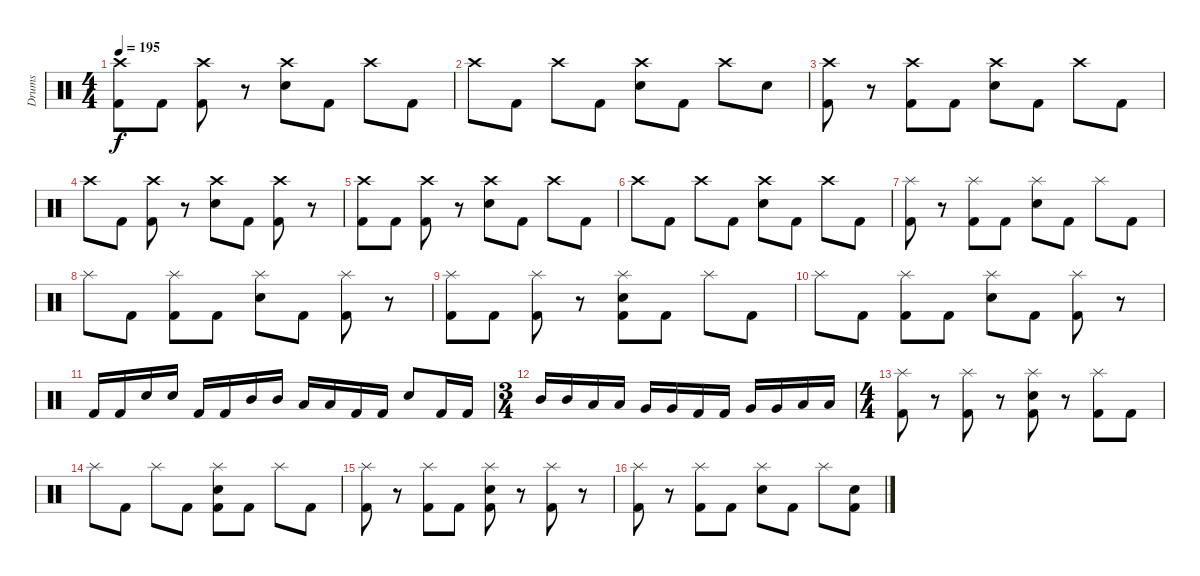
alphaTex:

\track ("Drums" "Drums") {instrument percussion}
\staff {score}
\articulation defaults
\ts (4 4)
\tempo 195
\clef neutral
\ks c
("Crash high (hit)" "Kick (hit) 2").8{dy f} "Kick (hit) 2".8 ("Crash high (hit)" "Kick (hit) 2").8 r.8 ("Crash high (hit)" "Electric Snare (hit)").8 "Kick (hit) 2".8 "Crash high (hit)".8 "Kick (hit) 2".8 |
"Crash high (hit)".8 "Kick (hit) 2".8 "Crash high (hit)".8 "Kick (hit) 2".8 ("Crash high (hit)" "Electric Snare (hit)").8 "Kick (hit) 2".8 "Crash high (hit)".8 "Electric Snare (hit)".8 |
("Crash high (hit)" "Kick (hit) 2").8 r.8 ("Crash high (hit)" "Kick (hit) 2").8 "Kick (hit) 2".8 ("Crash high (hit)" "Electric Snare (hit)").8 "Kick (hit) 2".8 "Crash high (hit)".8 "Kick (hit) 2".8 |
"Crash high (hit)".8 "Kick (hit) 2".8 ("Crash high (hit)" "Kick (hit) 2").8 r.8 ("Crash high (hit)" "Electric Snare (hit)").8 "Kick (hit) 2".8 ("Crash high (hit)" "Kick (hit) 2").8 r.8 |
("Crash high (hit)" "Kick (hit) 2").8 "Kick (hit) 2".8 ("Crash high (hit)" "Kick (hit) 2").8 r.8 ("Crash high (hit)" "Electric Snare (hit)").8 "Kick (hit) 2".8 "Crash high (hit)".8 "Kick (hit) 2".8 |
"Crash high (hit)".8 "Kick (hit) 2".8 "Crash high (hit)".8 "Kick (hit) 2".8 ("Crash high (hit)" "Electric Snare (hit)").8 "Kick (hit) 2".8 "Crash high (hit)".8 "Kick (hit) 2".8 |
("Splash (hit)" "Kick (hit) 2").8 r.8 ("Splash (hit)" "Kick (hit) 2").8 "Kick (hit) 2".8 ("Splash (hit)" "Electric Snare (hit)").8 "Kick (hit) 2".8 "Splash (hit)".8 "Kick (hit) 2".8 |
"Splash (hit)".8 "Kick (hit) 2".8 ("Splash (hit)" "Kick (hit) 2").8 "Kick (hit) 2".8 ("Splash (hit)" "Electric Snare (hit)").8 "Kick (hit) 2".8 ("Splash (hit)" "Kick (hit) 2").8 r.8 |
("Splash (hit)" "Kick (hit) 2").8 "Kick (hit) 2".8 ("Splash (hit)" "Kick (hit) 2").8 r.8 ("Splash (hit)" "Electric Snare (hit)" "Kick (hit) 2").8 "Kick (hit) 2".8 "Splash (hit)".8 "Kick (hit) 2".8 |
"Splash (hit)".8 "Kick (hit) 2".8 ("Splash (hit)" "Kick (hit) 2").8 "Kick (hit) 2".8 ("Splash (hit)" "Electric Snare (hit)").8 "Kick (hit) 2".8 ("Splash (hit)" "Kick (hit) 2").8 r.8 |
"Kick (hit) 2".16 "Kick (hit) 2".16 "Electric Snare (hit)".16 "Electric Snare (hit)".16 "Kick (hit) 2".16 "Kick (hit) 2".16 "Mid Tom (hit)".16 "Mid Tom (hit)".16 "Low Tom (hit)".16 "Low Tom (hit)".16 "Kick (hit) 2".16 "Kick (hit) 2".16 "Electric Snare (hit)".8 "Kick (hit) 2".16 "Kick (hit) 2".16 |
\ts (3 4)
"Mid Tom (hit)".16 "Mid Tom (hit)".16 "Low Tom (hit)".16 "Low Tom (hit)".16 "Very Low Tom (hit)".16 "Very Low Tom (hit)".16 "Kick (hit) 2".16 "Kick (hit) 2".16 "Very Low Tom (hit)".16 "Very Low Tom (hit)".16 "Low Floor Tom (hit)".16 "Low Floor Tom (hit)".16 |
\ts (4 4)
("Splash (hit)" "Kick (hit) 2").8 r.8 ("Splash (hit)" "Kick (hit) 2").8 r.8 ("Splash (hit)" "Electric Snare (hit)" "Kick (hit) 2").8 r.8 ("Splash (hit)" "Kick (hit) 2").8 "Kick (hit) 2".8 |
"Splash (hit)".8 "Kick (hit) 2".8 "Splash (hit)".8 "Kick (hit) 2".8 ("Splash (hit)" "Electric Snare (hit)" "Kick (hit) 2").8 "Kick (hit) 2".8 "Splash (hit)".8 "Kick (hit) 2".8 |
("Splash (hit)" "Kick (hit) 2").8 r.8 ("Splash (hit)" "Kick (hit) 2").8 "Kick (hit) 2".8 ("Splash (hit)" "Electric Snare (hit)" "Kick (hit) 2").8 r.8 ("Splash (hit)" "Kick (hit) 2").8 r.8 |
("Splash (hit)" "Kick (hit) 2").8 r.8 ("Splash (hit)" "Kick (hit) 2").8 "Kick (hit) 2".8 ("Splash (hit)" "Electric Snare (hit)").8 "Kick (hit) 2".8 "Splash (hit)".8 ("Electric Snare (hit)" "Kick (hit) 2").8
